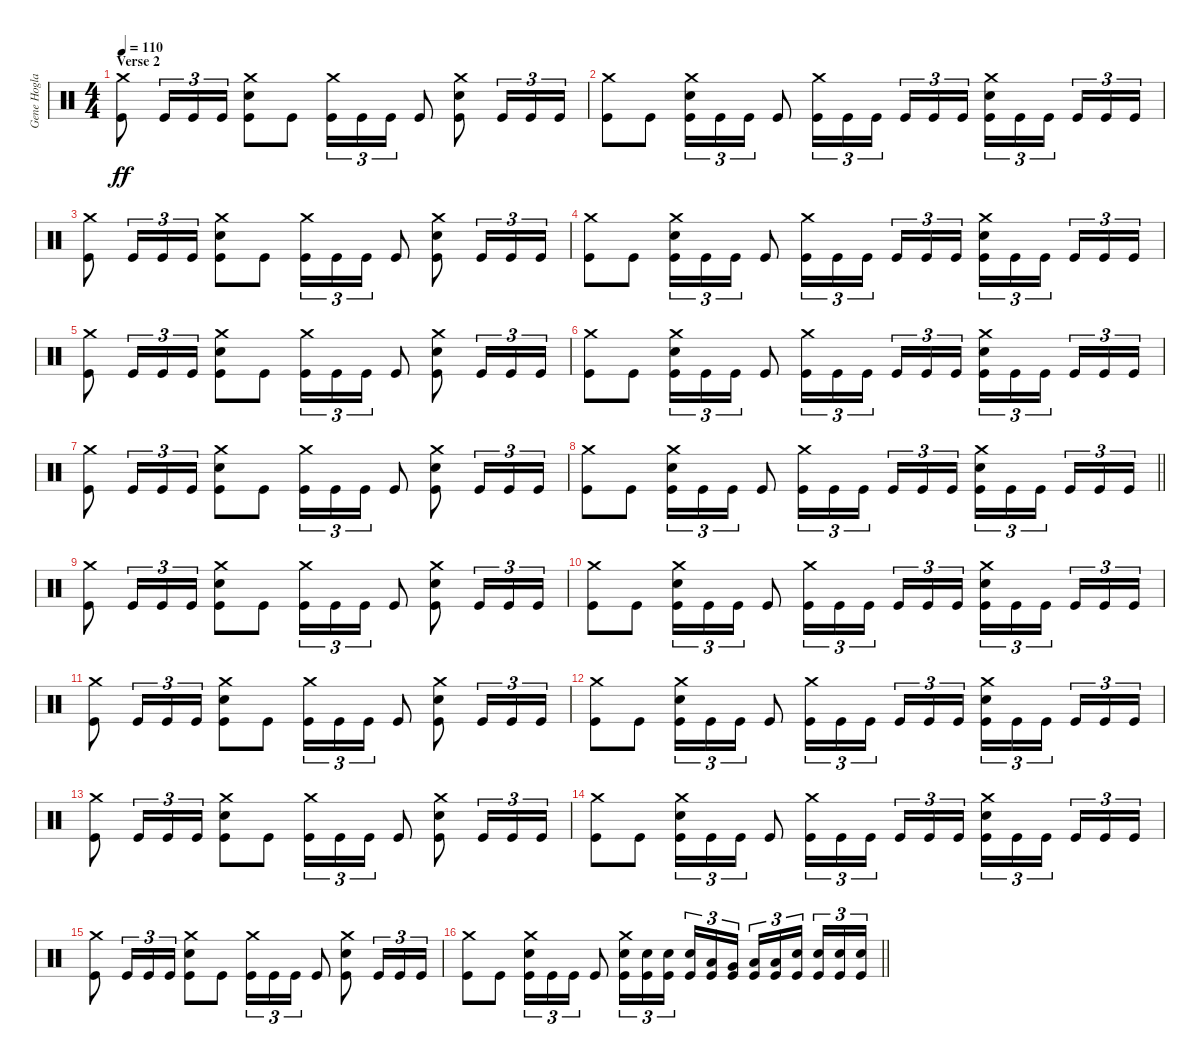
\track ("Gene Hoglan" "Gene Hogla") {instrument percussion}
\staff {score}
\articulation defaults
\ts (4 4)
\section ("" "Verse 2")
\tempo 110
\clef neutral
\ks c
("Crash medium (hit)" "Kick (hit)").8{dy ff} "Kick (hit)".16{tu (3 2)} "Kick (hit)".16{tu (3 2)} "Kick (hit)".16{tu (3 2)} ("Crash medium (hit)" "Electric Snare (hit)" "Kick (hit)").8 "Kick (hit)".8 ("Crash medium (hit)" "Kick (hit)").16{tu (3 2)} "Kick (hit)".16{tu (3 2)} "Kick (hit)".16{tu (3 2)} "Kick (hit)".8 ("Crash medium (hit)" "Electric Snare (hit)" "Kick (hit)").8 "Kick (hit)".16{tu (3 2)} "Kick (hit)".16{tu (3 2)} "Kick (hit)".16{tu (3 2)} |
("Crash medium (hit)" "Kick (hit)").8 "Kick (hit)".8 ("Crash medium (hit)" "Electric Snare (hit)" "Kick (hit)").16{tu (3 2)} "Kick (hit)".16{tu (3 2)} "Kick (hit)".16{tu (3 2)} "Kick (hit)".8 ("Crash medium (hit)" "Kick (hit)").16{tu (3 2)} "Kick (hit)".16{tu (3 2)} "Kick (hit)".16{tu (3 2) beam splitsecondary} "Kick (hit)".16{tu (3 2)} "Kick (hit)".16{tu (3 2)} "Kick (hit)".16{tu (3 2)} ("Crash medium (hit)" "Electric Snare (hit)" "Kick (hit)").16{tu (3 2)} "Kick (hit)".16{tu (3 2)} "Kick (hit)".16{tu (3 2) beam splitsecondary} "Kick (hit)".16{tu (3 2)} "Kick (hit)".16{tu (3 2)} "Kick (hit)".16{tu (3 2)} |
("Crash medium (hit)" "Kick (hit)").8 "Kick (hit)".16{tu (3 2)} "Kick (hit)".16{tu (3 2)} "Kick (hit)".16{tu (3 2)} ("Crash medium (hit)" "Electric Snare (hit)" "Kick (hit)").8 "Kick (hit)".8 ("Crash medium (hit)" "Kick (hit)").16{tu (3 2)} "Kick (hit)".16{tu (3 2)} "Kick (hit)".16{tu (3 2)} "Kick (hit)".8 ("Crash medium (hit)" "Electric Snare (hit)" "Kick (hit)").8 "Kick (hit)".16{tu (3 2)} "Kick (hit)".16{tu (3 2)} "Kick (hit)".16{tu (3 2)} |
("Crash medium (hit)" "Kick (hit)").8 "Kick (hit)".8 ("Crash medium (hit)" "Electric Snare (hit)" "Kick (hit)").16{tu (3 2)} "Kick (hit)".16{tu (3 2)} "Kick (hit)".16{tu (3 2)} "Kick (hit)".8 ("Crash medium (hit)" "Kick (hit)").16{tu (3 2)} "Kick (hit)".16{tu (3 2)} "Kick (hit)".16{tu (3 2) beam splitsecondary} "Kick (hit)".16{tu (3 2)} "Kick (hit)".16{tu (3 2)} "Kick (hit)".16{tu (3 2)} ("Crash medium (hit)" "Electric Snare (hit)" "Kick (hit)").16{tu (3 2)} "Kick (hit)".16{tu (3 2)} "Kick (hit)".16{tu (3 2) beam splitsecondary} "Kick (hit)".16{tu (3 2)} "Kick (hit)".16{tu (3 2)} "Kick (hit)".16{tu (3 2)} |
("Crash medium (hit)" "Kick (hit)").8 "Kick (hit)".16{tu (3 2)} "Kick (hit)".16{tu (3 2)} "Kick (hit)".16{tu (3 2)} ("Crash medium (hit)" "Electric Snare (hit)" "Kick (hit)").8 "Kick (hit)".8 ("Crash medium (hit)" "Kick (hit)").16{tu (3 2)} "Kick (hit)".16{tu (3 2)} "Kick (hit)".16{tu (3 2)} "Kick (hit)".8 ("Crash medium (hit)" "Electric Snare (hit)" "Kick (hit)").8 "Kick (hit)".16{tu (3 2)} "Kick (hit)".16{tu (3 2)} "Kick (hit)".16{tu (3 2)} |
("Crash medium (hit)" "Kick (hit)").8 "Kick (hit)".8 ("Crash medium (hit)" "Electric Snare (hit)" "Kick (hit)").16{tu (3 2)} "Kick (hit)".16{tu (3 2)} "Kick (hit)".16{tu (3 2)} "Kick (hit)".8 ("Crash medium (hit)" "Kick (hit)").16{tu (3 2)} "Kick (hit)".16{tu (3 2)} "Kick (hit)".16{tu (3 2) beam splitsecondary} "Kick (hit)".16{tu (3 2)} "Kick (hit)".16{tu (3 2)} "Kick (hit)".16{tu (3 2)} ("Crash medium (hit)" "Electric Snare (hit)" "Kick (hit)").16{tu (3 2)} "Kick (hit)".16{tu (3 2)} "Kick (hit)".16{tu (3 2) beam splitsecondary} "Kick (hit)".16{tu (3 2)} "Kick (hit)".16{tu (3 2)} "Kick (hit)".16{tu (3 2)} |
("Crash medium (hit)" "Kick (hit)").8 "Kick (hit)".16{tu (3 2)} "Kick (hit)".16{tu (3 2)} "Kick (hit)".16{tu (3 2)} ("Crash medium (hit)" "Electric Snare (hit)" "Kick (hit)").8 "Kick (hit)".8 ("Crash medium (hit)" "Kick (hit)").16{tu (3 2)} "Kick (hit)".16{tu (3 2)} "Kick (hit)".16{tu (3 2)} "Kick (hit)".8 ("Crash medium (hit)" "Electric Snare (hit)" "Kick (hit)").8 "Kick (hit)".16{tu (3 2)} "Kick (hit)".16{tu (3 2)} "Kick (hit)".16{tu (3 2)} |
\barLineRight lightlight
("Crash medium (hit)" "Kick (hit)").8 "Kick (hit)".8 ("Crash medium (hit)" "Electric Snare (hit)" "Kick (hit)").16{tu (3 2)} "Kick (hit)".16{tu (3 2)} "Kick (hit)".16{tu (3 2)} "Kick (hit)".8 ("Crash medium (hit)" "Kick (hit)").16{tu (3 2)} "Kick (hit)".16{tu (3 2)} "Kick (hit)".16{tu (3 2) beam splitsecondary} "Kick (hit)".16{tu (3 2)} "Kick (hit)".16{tu (3 2)} "Kick (hit)".16{tu (3 2)} ("Crash medium (hit)" "Electric Snare (hit)" "Kick (hit)").16{tu (3 2)} "Kick (hit)".16{tu (3 2)} "Kick (hit)".16{tu (3 2) beam splitsecondary} "Kick (hit)".16{tu (3 2)} "Kick (hit)".16{tu (3 2)} "Kick (hit)".16{tu (3 2)} |
("Crash medium (hit)" "Kick (hit)").8 "Kick (hit)".16{tu (3 2)} "Kick (hit)".16{tu (3 2)} "Kick (hit)".16{tu (3 2)} ("Crash medium (hit)" "Electric Snare (hit)" "Kick (hit)").8 "Kick (hit)".8 ("Crash medium (hit)" "Kick (hit)").16{tu (3 2)} "Kick (hit)".16{tu (3 2)} "Kick (hit)".16{tu (3 2)} "Kick (hit)".8 ("Crash medium (hit)" "Electric Snare (hit)" "Kick (hit)").8 "Kick (hit)".16{tu (3 2)} "Kick (hit)".16{tu (3 2)} "Kick (hit)".16{tu (3 2)} |
("Crash medium (hit)" "Kick (hit)").8 "Kick (hit)".8 ("Crash medium (hit)" "Electric Snare (hit)" "Kick (hit)").16{tu (3 2)} "Kick (hit)".16{tu (3 2)} "Kick (hit)".16{tu (3 2)} "Kick (hit)".8 ("Crash medium (hit)" "Kick (hit)").16{tu (3 2)} "Kick (hit)".16{tu (3 2)} "Kick (hit)".16{tu (3 2) beam splitsecondary} "Kick (hit)".16{tu (3 2)} "Kick (hit)".16{tu (3 2)} "Kick (hit)".16{tu (3 2)} ("Crash medium (hit)" "Electric Snare (hit)" "Kick (hit)").16{tu (3 2)} "Kick (hit)".16{tu (3 2)} "Kick (hit)".16{tu (3 2) beam splitsecondary} "Kick (hit)".16{tu (3 2)} "Kick (hit)".16{tu (3 2)} "Kick (hit)".16{tu (3 2)} |
("Crash medium (hit)" "Kick (hit)").8 "Kick (hit)".16{tu (3 2)} "Kick (hit)".16{tu (3 2)} "Kick (hit)".16{tu (3 2)} ("Crash medium (hit)" "Electric Snare (hit)" "Kick (hit)").8 "Kick (hit)".8 ("Crash medium (hit)" "Kick (hit)").16{tu (3 2)} "Kick (hit)".16{tu (3 2)} "Kick (hit)".16{tu (3 2)} "Kick (hit)".8 ("Crash medium (hit)" "Electric Snare (hit)" "Kick (hit)").8 "Kick (hit)".16{tu (3 2)} "Kick (hit)".16{tu (3 2)} "Kick (hit)".16{tu (3 2)} |
("Crash medium (hit)" "Kick (hit)").8 "Kick (hit)".8 ("Crash medium (hit)" "Electric Snare (hit)" "Kick (hit)").16{tu (3 2)} "Kick (hit)".16{tu (3 2)} "Kick (hit)".16{tu (3 2)} "Kick (hit)".8 ("Crash medium (hit)" "Kick (hit)").16{tu (3 2)} "Kick (hit)".16{tu (3 2)} "Kick (hit)".16{tu (3 2) beam splitsecondary} "Kick (hit)".16{tu (3 2)} "Kick (hit)".16{tu (3 2)} "Kick (hit)".16{tu (3 2)} ("Crash medium (hit)" "Electric Snare (hit)" "Kick (hit)").16{tu (3 2)} "Kick (hit)".16{tu (3 2)} "Kick (hit)".16{tu (3 2) beam splitsecondary} "Kick (hit)".16{tu (3 2)} "Kick (hit)".16{tu (3 2)} "Kick (hit)".16{tu (3 2)} |
("Crash medium (hit)" "Kick (hit)").8 "Kick (hit)".16{tu (3 2)} "Kick (hit)".16{tu (3 2)} "Kick (hit)".16{tu (3 2)} ("Crash medium (hit)" "Electric Snare (hit)" "Kick (hit)").8 "Kick (hit)".8 ("Crash medium (hit)" "Kick (hit)").16{tu (3 2)} "Kick (hit)".16{tu (3 2)} "Kick (hit)".16{tu (3 2)} "Kick (hit)".8 ("Crash medium (hit)" "Electric Snare (hit)" "Kick (hit)").8 "Kick (hit)".16{tu (3 2)} "Kick (hit)".16{tu (3 2)} "Kick (hit)".16{tu (3 2)} |
("Crash medium (hit)" "Kick (hit)").8 "Kick (hit)".8 ("Crash medium (hit)" "Electric Snare (hit)" "Kick (hit)").16{tu (3 2)} "Kick (hit)".16{tu (3 2)} "Kick (hit)".16{tu (3 2)} "Kick (hit)".8 ("Crash medium (hit)" "Kick (hit)").16{tu (3 2)} "Kick (hit)".16{tu (3 2)} "Kick (hit)".16{tu (3 2) beam splitsecondary} "Kick (hit)".16{tu (3 2)} "Kick (hit)".16{tu (3 2)} "Kick (hit)".16{tu (3 2)} ("Crash medium (hit)" "Electric Snare (hit)" "Kick (hit)").16{tu (3 2)} "Kick (hit)".16{tu (3 2)} "Kick (hit)".16{tu (3 2) beam splitsecondary} "Kick (hit)".16{tu (3 2)} "Kick (hit)".16{tu (3 2)} "Kick (hit)".16{tu (3 2)} |
("Crash medium (hit)" "Kick (hit)").8 "Kick (hit)".16{tu (3 2)} "Kick (hit)".16{tu (3 2)} "Kick (hit)".16{tu (3 2)} ("Crash medium (hit)" "Electric Snare (hit)" "Kick (hit)").8 "Kick (hit)".8 ("Crash medium (hit)" "Kick (hit)").16{tu (3 2)} "Kick (hit)".16{tu (3 2)} "Kick (hit)".16{tu (3 2)} "Kick (hit)".8 ("Crash medium (hit)" "Electric Snare (hit)" "Kick (hit)").8 "Kick (hit)".16{tu (3 2)} "Kick (hit)".16{tu (3 2)} "Kick (hit)".16{tu (3 2)} |
\barLineRight lightlight
("Crash medium (hit)" "Kick (hit)").8 "Kick (hit)".8 ("Crash medium (hit)" "Electric Snare (hit)" "Kick (hit)").16{tu (3 2)} "Kick (hit)".16{tu (3 2)} "Kick (hit)".16{tu (3 2)} "Kick (hit)".8 ("Crash medium (hit)" "Electric Snare (hit)" "Kick (hit)").16{tu (3 2)} ("Electric Snare (hit)" "Kick (hit)").16{tu (3 2)} ("Electric Snare (hit)" "Kick (hit)").16{tu (3 2) beam splitsecondary} ("Electric Snare (hit)" "Kick (hit)").16{tu (3 2)} ("Low Tom (hit)" "Kick (hit)").16{tu (3 2)} ("Very Low Tom (hit)" "Kick (hit)").16{tu (3 2)} ("Low Floor Tom (hit)" "Kick (hit)").16{tu (3 2)} ("Low Tom (hit)" "Kick (hit)").16{tu (3 2)} ("Electric Snare (hit)" "Kick (hit)").16{tu (3 2) beam splitsecondary} ("Electric Snare (hit)" "Kick (hit)").16{tu (3 2)} ("Electric Snare (hit)" "Kick (hit)").16{tu (3 2)} ("Electric Snare (hit)" "Kick (hit)").16{tu (3 2)}
